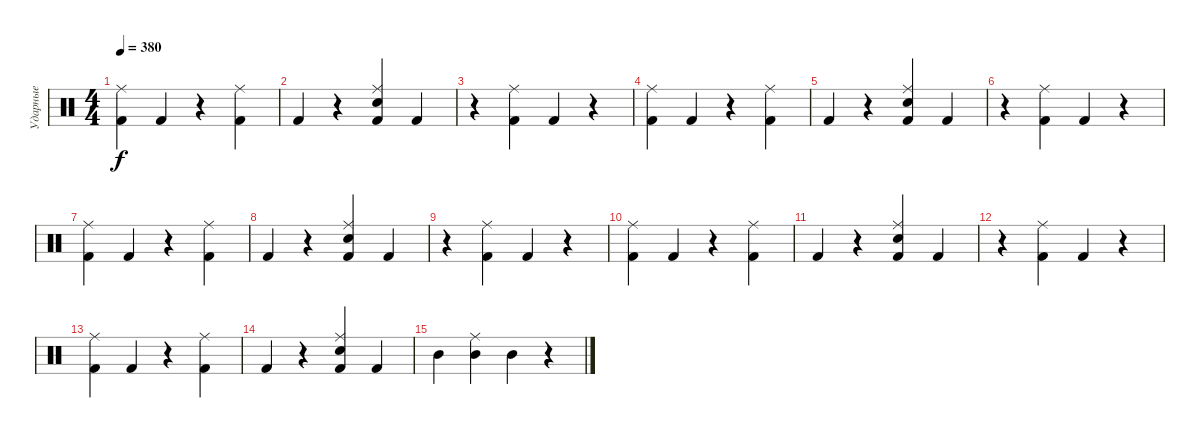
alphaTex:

\track ("Ударные" "Ударные") {instrument percussion}
\staff {score}
\articulation defaults
\ts (4 4)
\tempo 380
\clef neutral
\ks c
("Kick (hit) 2" "Ride (middle)").4{dy f} "Kick (hit) 2".4 r.4 ("Ride (middle)" "Kick (hit) 2").4 |
"Kick (hit) 2".4 r.4 ("Electric Snare (hit)" "Ride (middle)" "Kick (hit) 2").4 "Kick (hit) 2".4 |
r.4 ("Ride (middle)" "Kick (hit) 2").4 "Kick (hit) 2".4 r.4 |
("Kick (hit) 2" "Ride (middle)").4 "Kick (hit) 2".4 r.4 ("Ride (middle)" "Kick (hit) 2").4 |
"Kick (hit) 2".4 r.4 ("Electric Snare (hit)" "Ride (middle)" "Kick (hit) 2").4 "Kick (hit) 2".4 |
r.4 ("Ride (middle)" "Kick (hit) 2").4 "Kick (hit) 2".4 r.4 |
("Kick (hit) 2" "Ride (middle)").4 "Kick (hit) 2".4 r.4 ("Ride (middle)" "Kick (hit) 2").4 |
"Kick (hit) 2".4 r.4 ("Electric Snare (hit)" "Ride (middle)" "Kick (hit) 2").4 "Kick (hit) 2".4 |
r.4 ("Ride (middle)" "Kick (hit) 2").4 "Kick (hit) 2".4 r.4 |
("Kick (hit) 2" "Ride (middle)").4 "Kick (hit) 2".4 r.4 ("Ride (middle)" "Kick (hit) 2").4 |
"Kick (hit) 2".4 r.4 ("Electric Snare (hit)" "Ride (middle)" "Kick (hit) 2").4 "Kick (hit) 2".4 |
r.4 ("Ride (middle)" "Kick (hit) 2").4 "Kick (hit) 2".4 r.4 |
("Kick (hit) 2" "Ride (middle)").4 "Kick (hit) 2".4 r.4 ("Ride (middle)" "Kick (hit) 2").4 |
"Kick (hit) 2".4 r.4 ("Electric Snare (hit)" "Ride (middle)" "Kick (hit) 2").4 "Kick (hit) 2".4 |
"Mid Tom (hit)".4 ("Ride (middle)" "Mid Tom (hit)").4 "Mid Tom (hit)".4 r.4
